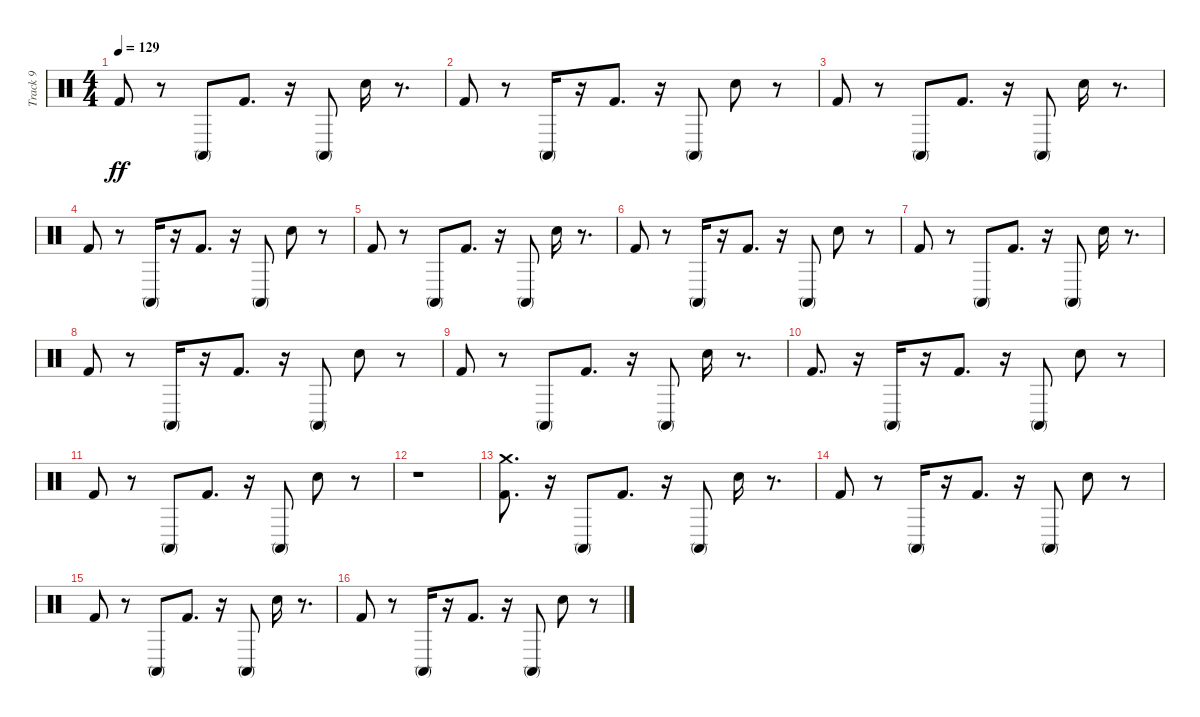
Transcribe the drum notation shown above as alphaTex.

\track ("Track 9" "Track 9") {instrument percussion}
\staff {score}
\articulation defaults
\ts (4 4)
\tempo 129
\clef neutral
\ks c "Kick (hit) 2".8{dy ff}
r.8 "Conga high (mute)".8 "Kick (hit) 2".8{d} r.16 "Conga high (mute)".8 "Snare (hit) 2".16 r.8{d} |
"Kick (hit) 2".8 r.8 "Conga high (mute)".16 r.16 "Kick (hit) 2".8{d} r.16 "Conga high (mute)".8 "Snare (hit) 2".8 r.8 |
"Kick (hit) 2".8 r.8 "Conga high (mute)".8 "Kick (hit) 2".8{d} r.16 "Conga high (mute)".8 "Snare (hit) 2".16 r.8{d} |
"Kick (hit) 2".8 r.8 "Conga high (mute)".16 r.16 "Kick (hit) 2".8{d} r.16 "Conga high (mute)".8 "Snare (hit) 2".8 r.8 |
"Kick (hit) 2".8 r.8 "Conga high (mute)".8 "Kick (hit) 2".8{d} r.16 "Conga high (mute)".8 "Snare (hit) 2".16 r.8{d} |
"Kick (hit) 2".8 r.8 "Conga high (mute)".16 r.16 "Kick (hit) 2".8{d} r.16 "Conga high (mute)".8 "Snare (hit) 2".8 r.8 |
"Kick (hit) 2".8 r.8 "Conga high (mute)".8 "Kick (hit) 2".8{d} r.16 "Conga high (mute)".8 "Snare (hit) 2".16 r.8{d} |
"Kick (hit) 2".8 r.8 "Conga high (mute)".16 r.16 "Kick (hit) 2".8{d} r.16 "Conga high (mute)".8 "Snare (hit) 2".8 r.8 |
"Kick (hit) 2".8 r.8 "Conga high (mute)".8 "Kick (hit) 2".8{d} r.16 "Conga high (mute)".8 "Snare (hit) 2".16 r.8{d} |
"Kick (hit) 2".8{d} r.16 "Conga high (mute)".16 r.16 "Kick (hit) 2".8{d} r.16 "Conga high (mute)".8 "Snare (hit) 2".8 r.8 |
"Kick (hit) 2".8 r.8 "Conga high (mute)".8 "Kick (hit) 2".8{d} r.16 "Conga high (mute)".8 "Snare (hit) 2".8 r.8 |
r.1 |
("Crash medium (hit)" "Kick (hit) 2").8{d} r.16 "Conga high (mute)".8 "Kick (hit) 2".8{d} r.16 "Conga high (mute)".8 "Snare (hit) 2".16 r.8{d} |
"Kick (hit) 2".8 r.8 "Conga high (mute)".16 r.16 "Kick (hit) 2".8{d} r.16 "Conga high (mute)".8 "Snare (hit) 2".8 r.8 |
"Kick (hit) 2".8 r.8 "Conga high (mute)".8 "Kick (hit) 2".8{d} r.16 "Conga high (mute)".8 "Snare (hit) 2".16 r.8{d} |
"Kick (hit) 2".8 r.8 "Conga high (mute)".16 r.16 "Kick (hit) 2".8{d} r.16 "Conga high (mute)".8 "Snare (hit) 2".8 r.8
